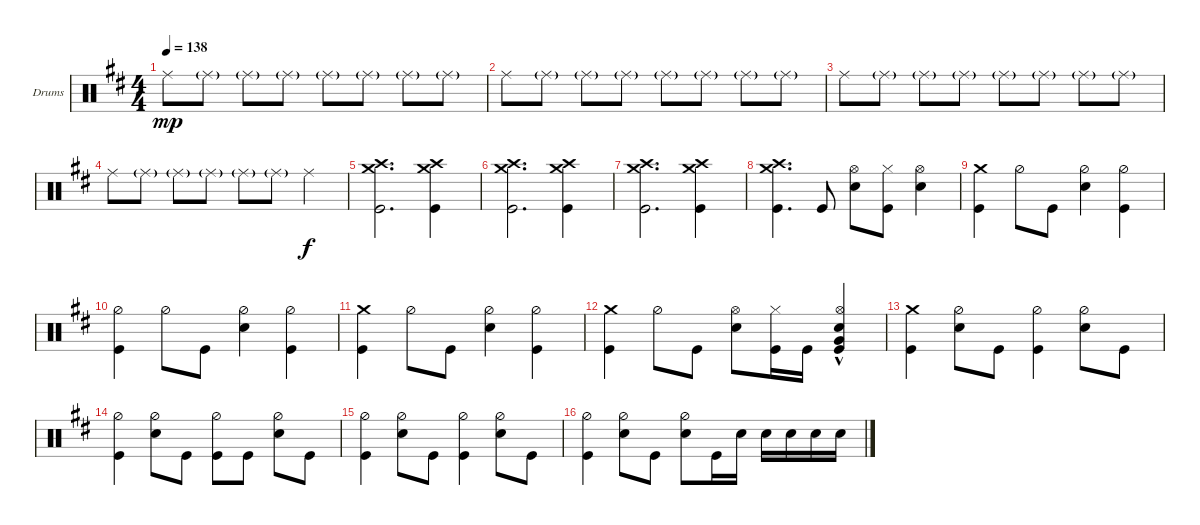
\defaultSystemsLayout 4
\bracketExtendMode groupsimilarinstruments
\firstSystemTrackNameOrientation horizontal
\otherSystemsTrackNameOrientation horizontal
\track ("Drumkit" "Drums") {instrument percussion}
\staff {score}
\articulation defaults
\ts (4 4)
\tempo 138
\clef neutral
\ks d "Ride (middle)".8{dy mp} "Ride (middle)"{g}.8 "Ride (middle)"{g}.8 "Ride (middle)"{g}.8 "Ride (middle)"{g}.8 "Ride (middle)"{g}.8 "Ride (middle)"{g}.8 "Ride (middle)"{g}.8
|
"Ride (middle)".8 "Ride (middle)"{g}.8 "Ride (middle)"{g}.8 "Ride (middle)"{g}.8 "Ride (middle)"{g}.8 "Ride (middle)"{g}.8 "Ride (middle)"{g}.8 "Ride (middle)"{g}.8 |
"Ride (middle)".8 "Ride (middle)"{g}.8 "Ride (middle)"{g}.8 "Ride (middle)"{g}.8 "Ride (middle)"{g}.8 "Ride (middle)"{g}.8 "Ride (middle)"{g}.8 "Ride (middle)"{g}.8 |
"Ride (middle)".8 "Ride (middle)"{g}.8 "Ride (middle)"{g}.8 "Ride (middle)"{g}.8 "Ride (middle)"{g}.8 "Ride (middle)"{g}.8 "Ride (middle)".4{dy f} |
("Kick (hit)" "Crash medium (hit)" "Crash high (hit)").2{d} ("Crash high (hit)" "Crash medium (hit)" "Kick (hit)").4 |
("Kick (hit)" "Crash medium (hit)" "Crash high (hit)").2{d} ("Crash high (hit)" "Crash medium (hit)" "Kick (hit)").4 |
("Kick (hit)" "Crash medium (hit)" "Crash high (hit)").2{d} ("Crash high (hit)" "Crash medium (hit)" "Kick (hit)").4 |
("Kick (hit)" "Crash medium (hit)" "Crash high (hit)").4{d} "Kick (hit)".8 ("Snare (hit) 2" "Hi-Hat (open)").8 ("Kick (hit)" "Hi-Hat (closed)").8 ("Snare (hit) 2" "Hi-Hat (open)").4 |
("Kick (hit)" "Crash medium (hit)").4 "Hi-Hat (half)".8 "Kick (hit)".8 ("Hi-Hat (half)" "Snare (hit) 2").4 ("Hi-Hat (half)" "Kick (hit)").4 |
("Kick (hit)" "Hi-Hat (half)").4 "Hi-Hat (half)".8 "Kick (hit)".8 ("Hi-Hat (half)" "Snare (hit) 2").4 ("Hi-Hat (half)" "Kick (hit)").4 |
("Kick (hit)" "Crash medium (hit)").4 "Hi-Hat (half)".8 "Kick (hit)".8 ("Hi-Hat (half)" "Snare (hit) 2").4 ("Hi-Hat (half)" "Kick (hit)").4 |
("Kick (hit)" "Crash medium (hit)").4 "Hi-Hat (half)".8 "Kick (hit)".8 ("Hi-Hat (open)" "Snare (hit) 2").8 ("Kick (hit)" "Hi-Hat (closed)").16 "Kick (hit)".16 ("Snare (hit) 2" "Hi-Hat (open)" "Very Low Tom (hit)"{hac} "Kick (hit)").4 |
("Kick (hit)" "Crash medium (hit)").4 ("Snare (hit) 2" "Hi-Hat (half)").8 "Kick (hit)".8 ("Kick (hit)" "Hi-Hat (half)").4 ("Snare (hit) 2" "Hi-Hat (half)").8 "Kick (hit)".8 |
("Kick (hit)" "Hi-Hat (half)").4 ("Snare (hit) 2" "Hi-Hat (half)").8 "Kick (hit)".8 ("Kick (hit)" "Hi-Hat (half)").8 "Kick (hit)".8 ("Snare (hit) 2" "Hi-Hat (half)").8 "Kick (hit)".8 |
("Kick (hit)" "Hi-Hat (half)").4 ("Snare (hit) 2" "Hi-Hat (half)").8 "Kick (hit)".8 ("Kick (hit)" "Hi-Hat (half)").4 ("Snare (hit) 2" "Hi-Hat (half)").8 "Kick (hit)".8 |
("Kick (hit)" "Hi-Hat (half)").4 ("Snare (hit) 2" "Hi-Hat (half)").8 "Kick (hit)".8 ("Snare (hit) 2" "Hi-Hat (half)").8 "Kick (hit)".16 "Snare (hit) 2".16 "Snare (hit) 2".16 "Snare (hit) 2".16 "Snare (hit) 2".16 "Snare (hit) 2".16
